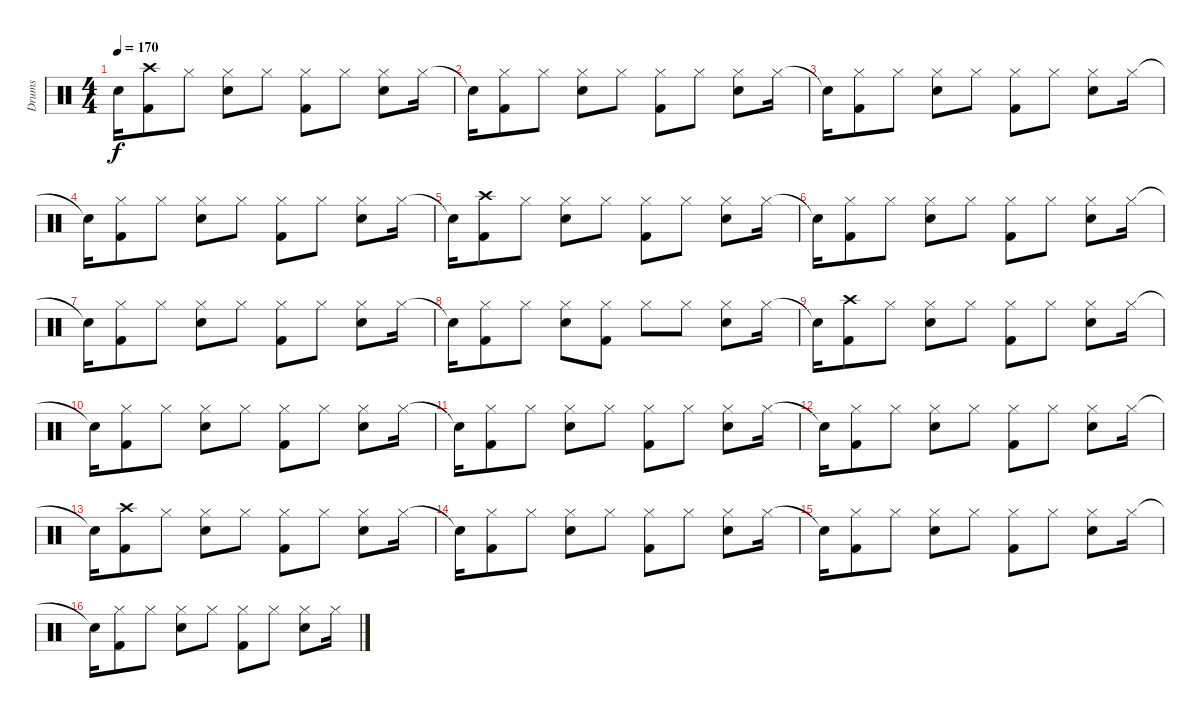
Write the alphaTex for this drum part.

\track ("Drums" "Drums") {instrument percussion}
\staff {score}
\articulation defaults
\ts (4 4)
\tempo 170
\clef neutral
\ks c "Snare (hit)"{t}.16{dy f}
("Kick (hit) 2" "Crash high (hit)").8 "Hi-Hat (closed)".8 ("Snare (hit) 2" "Hi-Hat (closed)").8 "Hi-Hat (closed)".8 ("Kick (hit) 2" "Hi-Hat (closed)").8 "Hi-Hat (closed)".8 ("Snare (hit) 2" "Hi-Hat (closed)").8 "Hi-Hat (closed)".16 |
"Snare (hit)"{t}.16 ("Kick (hit) 2" "Hi-Hat (closed)").8 "Hi-Hat (closed)".8 ("Snare (hit) 2" "Hi-Hat (closed)").8 "Hi-Hat (closed)".8 ("Kick (hit) 2" "Hi-Hat (closed)").8 "Hi-Hat (closed)".8 ("Snare (hit) 2" "Hi-Hat (closed)").8 "Hi-Hat (closed)".16 |
"Snare (hit)"{t}.16 ("Kick (hit) 2" "Hi-Hat (closed)").8 "Hi-Hat (closed)".8 ("Snare (hit) 2" "Hi-Hat (closed)").8 "Hi-Hat (closed)".8 ("Kick (hit) 2" "Hi-Hat (closed)").8 "Hi-Hat (closed)".8 ("Snare (hit) 2" "Hi-Hat (closed)").8 "Hi-Hat (closed)".16 |
"Snare (hit)"{t}.16 ("Kick (hit) 2" "Hi-Hat (closed)").8 "Hi-Hat (closed)".8 ("Snare (hit) 2" "Hi-Hat (closed)").8 "Hi-Hat (closed)".8 ("Kick (hit) 2" "Hi-Hat (closed)").8 "Hi-Hat (closed)".8 ("Snare (hit) 2" "Hi-Hat (closed)").8 "Hi-Hat (closed)".16 |
"Snare (hit)"{t}.16 ("Kick (hit) 2" "Crash high (hit)").8 "Hi-Hat (closed)".8 ("Snare (hit) 2" "Hi-Hat (closed)").8 "Hi-Hat (closed)".8 ("Kick (hit) 2" "Hi-Hat (closed)").8 "Hi-Hat (closed)".8 ("Snare (hit) 2" "Hi-Hat (closed)").8 "Hi-Hat (closed)".16 |
"Snare (hit)"{t}.16 ("Kick (hit) 2" "Hi-Hat (closed)").8 "Hi-Hat (closed)".8 ("Snare (hit) 2" "Hi-Hat (closed)").8 "Hi-Hat (closed)".8 ("Kick (hit) 2" "Hi-Hat (closed)").8 "Hi-Hat (closed)".8 ("Snare (hit) 2" "Hi-Hat (closed)").8 "Hi-Hat (closed)".16 |
"Snare (hit)"{t}.16 ("Kick (hit) 2" "Hi-Hat (closed)").8 "Hi-Hat (closed)".8 ("Snare (hit) 2" "Hi-Hat (closed)").8 "Hi-Hat (closed)".8 ("Kick (hit) 2" "Hi-Hat (closed)").8 "Hi-Hat (closed)".8 ("Snare (hit) 2" "Hi-Hat (closed)").8 "Hi-Hat (closed)".16 |
"Snare (hit)"{t}.16 ("Kick (hit) 2" "Hi-Hat (closed)").8 "Hi-Hat (closed)".8 ("Snare (hit) 2" "Hi-Hat (closed)").8 ("Kick (hit) 2" "Hi-Hat (closed)").8 "Hi-Hat (closed)".8 "Hi-Hat (closed)".8 ("Snare (hit) 2" "Hi-Hat (closed)").8 "Hi-Hat (closed)".16 |
"Snare (hit)"{t}.16 ("Kick (hit) 2" "Crash high (hit)").8 "Hi-Hat (closed)".8 ("Snare (hit) 2" "Hi-Hat (closed)").8 "Hi-Hat (closed)".8 ("Kick (hit) 2" "Hi-Hat (closed)").8 "Hi-Hat (closed)".8 ("Snare (hit) 2" "Hi-Hat (closed)").8 "Hi-Hat (closed)".16 |
"Snare (hit)"{t}.16 ("Kick (hit) 2" "Hi-Hat (closed)").8 "Hi-Hat (closed)".8 ("Snare (hit) 2" "Hi-Hat (closed)").8 "Hi-Hat (closed)".8 ("Kick (hit) 2" "Hi-Hat (closed)").8 "Hi-Hat (closed)".8 ("Snare (hit) 2" "Hi-Hat (closed)").8 "Hi-Hat (closed)".16 |
"Snare (hit)"{t}.16 ("Kick (hit) 2" "Hi-Hat (closed)").8 "Hi-Hat (closed)".8 ("Snare (hit) 2" "Hi-Hat (closed)").8 "Hi-Hat (closed)".8 ("Kick (hit) 2" "Hi-Hat (closed)").8 "Hi-Hat (closed)".8 ("Snare (hit) 2" "Hi-Hat (closed)").8 "Hi-Hat (closed)".16 |
"Snare (hit)"{t}.16 ("Kick (hit) 2" "Hi-Hat (closed)").8 "Hi-Hat (closed)".8 ("Snare (hit) 2" "Hi-Hat (closed)").8 "Hi-Hat (closed)".8 ("Kick (hit) 2" "Hi-Hat (closed)").8 "Hi-Hat (closed)".8 ("Snare (hit) 2" "Hi-Hat (closed)").8 "Hi-Hat (closed)".16 |
"Snare (hit)"{t}.16 ("Kick (hit) 2" "Crash high (hit)").8 "Hi-Hat (closed)".8 ("Snare (hit) 2" "Hi-Hat (closed)").8 "Hi-Hat (closed)".8 ("Kick (hit) 2" "Hi-Hat (closed)").8 "Hi-Hat (closed)".8 ("Snare (hit) 2" "Hi-Hat (closed)").8 "Hi-Hat (closed)".16 |
"Snare (hit)"{t}.16 ("Kick (hit) 2" "Hi-Hat (closed)").8 "Hi-Hat (closed)".8 ("Snare (hit) 2" "Hi-Hat (closed)").8 "Hi-Hat (closed)".8 ("Kick (hit) 2" "Hi-Hat (closed)").8 "Hi-Hat (closed)".8 ("Snare (hit) 2" "Hi-Hat (closed)").8 "Hi-Hat (closed)".16 |
"Snare (hit)"{t}.16 ("Kick (hit) 2" "Hi-Hat (closed)").8 "Hi-Hat (closed)".8 ("Snare (hit) 2" "Hi-Hat (closed)").8 "Hi-Hat (closed)".8 ("Kick (hit) 2" "Hi-Hat (closed)").8 "Hi-Hat (closed)".8 ("Snare (hit) 2" "Hi-Hat (closed)").8 "Hi-Hat (closed)".16 |
"Snare (hit)"{t}.16 ("Kick (hit) 2" "Hi-Hat (closed)").8 "Hi-Hat (closed)".8 ("Snare (hit) 2" "Hi-Hat (closed)").8 "Hi-Hat (closed)".8 ("Kick (hit) 2" "Hi-Hat (closed)").8 "Hi-Hat (closed)".8 ("Snare (hit) 2" "Hi-Hat (closed)").8 "Hi-Hat (closed)".16
